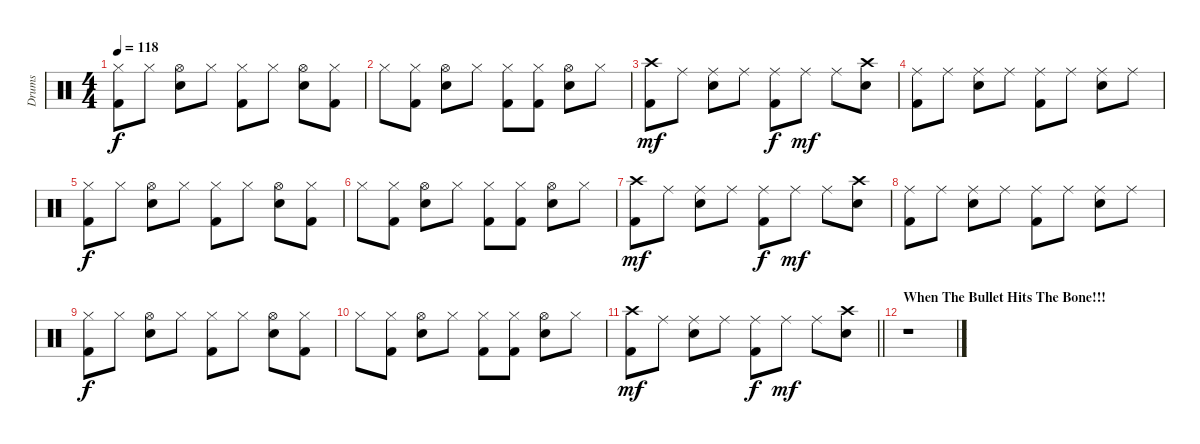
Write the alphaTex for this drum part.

\track ("Drums" "Drums") {instrument percussion}
\staff {score}
\articulation defaults
\ts (4 4)
\tempo 118
\clef neutral
\ks c
("Hi-Hat (closed)" "Kick (hit) 2").8{dy f} "Hi-Hat (closed)".8 ("Hi-Hat (open)" "Snare (hit) 2").8 "Hi-Hat (closed)".8 ("Hi-Hat (closed)" "Kick (hit) 2").8 "Hi-Hat (closed)".8 ("Hi-Hat (open)" "Snare (hit) 2").8 ("Hi-Hat (closed)" "Kick (hit) 2").8 |
"Hi-Hat (closed)".8 ("Hi-Hat (closed)" "Kick (hit) 2").8 ("Hi-Hat (open)" "Snare (hit) 2").8 "Hi-Hat (closed)".8 ("Hi-Hat (closed)" "Kick (hit) 2").8 ("Hi-Hat (closed)" "Kick (hit) 2").8 ("Hi-Hat (open)" "Snare (hit) 2").8 "Hi-Hat (closed)".8 |
("Crash high (hit)" "Kick (hit) 2").8{dy mf} "Ride (middle)".8 ("Ride (middle)" "Snare (hit) 2").8 "Ride (middle)".8 ("Ride (middle)" "Kick (hit) 2").8{dy f} "Ride (middle)".8{dy mf} "Ride (middle)".8 ("Crash high (hit)" "Snare (hit) 2").8 |
("Ride (middle)" "Kick (hit) 2").8 "Ride (middle)".8 ("Ride (middle)" "Snare (hit) 2").8 "Ride (middle)".8 ("Ride (middle)" "Kick (hit) 2").8 "Ride (middle)".8 ("Ride (middle)" "Snare (hit) 2").8 "Ride (middle)".8 |
("Hi-Hat (closed)" "Kick (hit) 2").8{dy f} "Hi-Hat (closed)".8 ("Hi-Hat (open)" "Snare (hit) 2").8 "Hi-Hat (closed)".8 ("Hi-Hat (closed)" "Kick (hit) 2").8 "Hi-Hat (closed)".8 ("Hi-Hat (open)" "Snare (hit) 2").8 ("Hi-Hat (closed)" "Kick (hit) 2").8 |
"Hi-Hat (closed)".8 ("Hi-Hat (closed)" "Kick (hit) 2").8 ("Hi-Hat (open)" "Snare (hit) 2").8 "Hi-Hat (closed)".8 ("Hi-Hat (closed)" "Kick (hit) 2").8 ("Hi-Hat (closed)" "Kick (hit) 2").8 ("Hi-Hat (open)" "Snare (hit) 2").8 "Hi-Hat (closed)".8 |
("Crash high (hit)" "Kick (hit) 2").8{dy mf} "Ride (middle)".8 ("Ride (middle)" "Snare (hit) 2").8 "Ride (middle)".8 ("Ride (middle)" "Kick (hit) 2").8{dy f} "Ride (middle)".8{dy mf} "Ride (middle)".8 ("Crash high (hit)" "Snare (hit) 2").8 |
("Ride (middle)" "Kick (hit) 2").8 "Ride (middle)".8 ("Ride (middle)" "Snare (hit) 2").8 "Ride (middle)".8 ("Ride (middle)" "Kick (hit) 2").8 "Ride (middle)".8 ("Ride (middle)" "Snare (hit) 2").8 "Ride (middle)".8 |
("Hi-Hat (closed)" "Kick (hit) 2").8{dy f} "Hi-Hat (closed)".8 ("Hi-Hat (open)" "Snare (hit) 2").8 "Hi-Hat (closed)".8 ("Hi-Hat (closed)" "Kick (hit) 2").8 "Hi-Hat (closed)".8 ("Hi-Hat (open)" "Snare (hit) 2").8 ("Hi-Hat (closed)" "Kick (hit) 2").8 |
"Hi-Hat (closed)".8 ("Hi-Hat (closed)" "Kick (hit) 2").8 ("Hi-Hat (open)" "Snare (hit) 2").8 "Hi-Hat (closed)".8 ("Hi-Hat (closed)" "Kick (hit) 2").8 ("Hi-Hat (closed)" "Kick (hit) 2").8 ("Hi-Hat (open)" "Snare (hit) 2").8 "Hi-Hat (closed)".8 |
\barLineRight lightlight
("Crash high (hit)" "Kick (hit) 2").8{dy mf} "Ride (middle)".8 ("Ride (middle)" "Snare (hit) 2").8 "Ride (middle)".8 ("Ride (middle)" "Kick (hit) 2").8{dy f} "Ride (middle)".8{dy mf} "Ride (middle)".8 ("Crash high (hit)" "Snare (hit) 2").8 |
\section ("" "When The Bullet Hits The Bone!!!")
r.1
